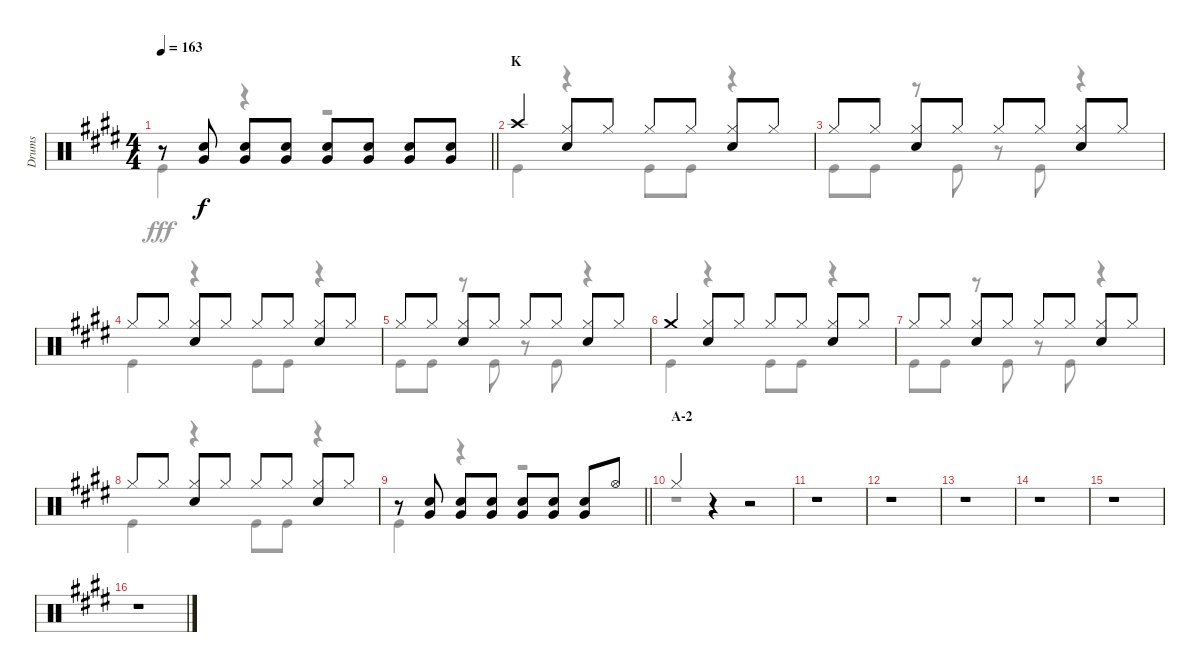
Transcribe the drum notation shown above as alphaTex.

\track ("Drums" "Drums") {instrument percussion}
\staff {score}
\articulation defaults
\voice
\ts (4 4)
\tempo 163
\clef neutral
\barLineRight lightlight
\ks e
r.8{dy f} ("Snare (hit) 2" "Very Low Tom (hit)").8 ("Snare (hit) 2" "Very Low Tom (hit)").8 ("Snare (hit) 2" "Very Low Tom (hit)").8 ("Snare (hit) 2" "Very Low Tom (hit)").8 ("Snare (hit) 2" "Very Low Tom (hit)").8 ("Snare (hit) 2" "Very Low Tom (hit)").8 ("Snare (hit) 2" "Very Low Tom (hit)").8 |
\section ("" "K")
"Crash high (hit)".4 ("Hi-Hat (closed)" "Snare (hit) 2").8 "Hi-Hat (closed)".8 "Hi-Hat (closed)".8 "Hi-Hat (closed)".8 ("Hi-Hat (closed)" "Snare (hit) 2").8 "Hi-Hat (closed)".8 |
"Hi-Hat (closed)".8 "Hi-Hat (closed)".8 ("Hi-Hat (closed)" "Snare (hit) 2").8 "Hi-Hat (closed)".8 "Hi-Hat (closed)".8 "Hi-Hat (closed)".8 ("Hi-Hat (closed)" "Snare (hit) 2").8 "Hi-Hat (closed)".8 |
"Hi-Hat (closed)".8 "Hi-Hat (closed)".8 ("Hi-Hat (closed)" "Snare (hit) 2").8 "Hi-Hat (closed)".8 "Hi-Hat (closed)".8 "Hi-Hat (closed)".8 ("Hi-Hat (closed)" "Snare (hit) 2").8 "Hi-Hat (closed)".8 |
"Hi-Hat (closed)".8 "Hi-Hat (closed)".8 ("Hi-Hat (closed)" "Snare (hit) 2").8 "Hi-Hat (closed)".8 "Hi-Hat (closed)".8 "Hi-Hat (closed)".8 ("Hi-Hat (closed)" "Snare (hit) 2").8 "Hi-Hat (closed)".8 |
"Crash medium (hit)".4 ("Hi-Hat (closed)" "Snare (hit) 2").8 "Hi-Hat (closed)".8 "Hi-Hat (closed)".8 "Hi-Hat (closed)".8 ("Hi-Hat (closed)" "Snare (hit) 2").8 "Hi-Hat (closed)".8 |
"Hi-Hat (closed)".8 "Hi-Hat (closed)".8 ("Hi-Hat (closed)" "Snare (hit) 2").8 "Hi-Hat (closed)".8 "Hi-Hat (closed)".8 "Hi-Hat (closed)".8 ("Hi-Hat (closed)" "Snare (hit) 2").8 "Hi-Hat (closed)".8 |
"Hi-Hat (closed)".8 "Hi-Hat (closed)".8 ("Hi-Hat (closed)" "Snare (hit) 2").8 "Hi-Hat (closed)".8 "Hi-Hat (closed)".8 "Hi-Hat (closed)".8 ("Hi-Hat (closed)" "Snare (hit) 2").8 "Hi-Hat (closed)".8 |
\barLineRight lightlight
r.8 ("Snare (hit) 2" "Very Low Tom (hit)").8 ("Snare (hit) 2" "Very Low Tom (hit)").8 ("Snare (hit) 2" "Very Low Tom (hit)").8 ("Snare (hit) 2" "Very Low Tom (hit)").8 ("Snare (hit) 2" "Very Low Tom (hit)").8 ("Snare (hit) 2" "Very Low Tom (hit)").8 "Hi-Hat (open)".8 |
\section ("" "A-2")
"Hi-Hat (closed)".4 r.4 r.2 |
r.1 |
r.1 |
r.1 |
r.1 |
r.1 |
r.1
\voice
\clef neutral
\ottava regular
\simile none
\barLineRight lightlight
\ks e "Kick (hit)".4{dy fff}
r.4 r.2 |
"Kick (hit)".4 r.4 "Kick (hit)".8 "Kick (hit)".8 r.4 |
"Kick (hit)".8 "Kick (hit)".8 r.8 "Kick (hit)".8 r.8 "Kick (hit)".8 r.4 |
"Kick (hit)".4 r.4 "Kick (hit)".8 "Kick (hit)".8 r.4 |
"Kick (hit)".8 "Kick (hit)".8 r.8 "Kick (hit)".8 r.8 "Kick (hit)".8 r.4 |
"Kick (hit)".4 r.4 "Kick (hit)".8 "Kick (hit)".8 r.4 |
"Kick (hit)".8 "Kick (hit)".8 r.8 "Kick (hit)".8 r.8 "Kick (hit)".8 r.4 |
"Kick (hit)".4 r.4 "Kick (hit)".8 "Kick (hit)".8 r.4 |
\barLineRight lightlight "Kick (hit)".4
r.4 r.2 |
r.1 |
r.1 |
r.1 |
r.1 |
r.1 |
r.1 |
r.1
